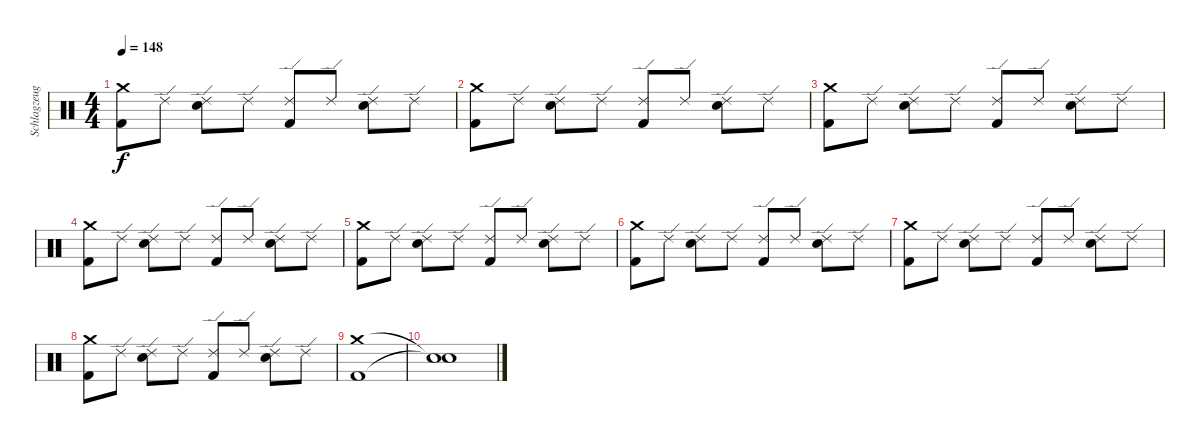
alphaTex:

\track ("Schlagzeug" "Schlagzeug") {instrument percussion}
\staff {score}
\articulation defaults
\ts (4 4)
\tempo 148
\clef neutral
\ks c
("Crash medium (hit)" "Kick (hit) 2").8{dy f} "Ride (edge) 2".8 ("Ride (edge) 2" "Snare (hit) 2").8 "Ride (edge) 2".8 ("Ride (edge) 2" "Kick (hit) 2").8 "Ride (edge) 2".8 ("Ride (edge) 2" "Snare (hit) 2").8 "Ride (edge) 2".8 |
("Crash medium (hit)" "Kick (hit) 2").8 "Ride (edge) 2".8 ("Ride (edge) 2" "Snare (hit) 2").8 "Ride (edge) 2".8 ("Ride (edge) 2" "Kick (hit) 2").8 "Ride (edge) 2".8 ("Ride (edge) 2" "Snare (hit) 2").8 "Ride (edge) 2".8 |
("Crash medium (hit)" "Kick (hit) 2").8 "Ride (edge) 2".8 ("Ride (edge) 2" "Snare (hit) 2").8 "Ride (edge) 2".8 ("Ride (edge) 2" "Kick (hit) 2").8 "Ride (edge) 2".8 ("Ride (edge) 2" "Snare (hit) 2").8 "Ride (edge) 2".8 |
("Crash medium (hit)" "Kick (hit) 2").8 "Ride (edge) 2".8 ("Ride (edge) 2" "Snare (hit) 2").8 "Ride (edge) 2".8 ("Ride (edge) 2" "Kick (hit) 2").8 "Ride (edge) 2".8 ("Ride (edge) 2" "Snare (hit) 2").8 "Ride (edge) 2".8 |
("Crash medium (hit)" "Kick (hit) 2").8 "Ride (edge) 2".8 ("Ride (edge) 2" "Snare (hit) 2").8 "Ride (edge) 2".8 ("Ride (edge) 2" "Kick (hit) 2").8 "Ride (edge) 2".8 ("Ride (edge) 2" "Snare (hit) 2").8 "Ride (edge) 2".8 |
("Crash medium (hit)" "Kick (hit) 2").8 "Ride (edge) 2".8 ("Ride (edge) 2" "Snare (hit) 2").8 "Ride (edge) 2".8 ("Ride (edge) 2" "Kick (hit) 2").8 "Ride (edge) 2".8 ("Ride (edge) 2" "Snare (hit) 2").8 "Ride (edge) 2".8 |
("Crash medium (hit)" "Kick (hit) 2").8 "Ride (edge) 2".8 ("Ride (edge) 2" "Snare (hit) 2").8 "Ride (edge) 2".8 ("Ride (edge) 2" "Kick (hit) 2").8 "Ride (edge) 2".8 ("Ride (edge) 2" "Snare (hit) 2").8 "Ride (edge) 2".8 |
("Crash medium (hit)" "Kick (hit) 2").8 "Ride (edge) 2".8 ("Ride (edge) 2" "Snare (hit) 2").8 "Ride (edge) 2".8 ("Ride (edge) 2" "Kick (hit) 2").8 "Ride (edge) 2".8 ("Ride (edge) 2" "Snare (hit) 2").8 "Ride (edge) 2".8 |
("Crash medium (hit)" "Kick (hit) 2").1 |
("Snare (hit)"{t} "Snare (hit)"{t}).1
